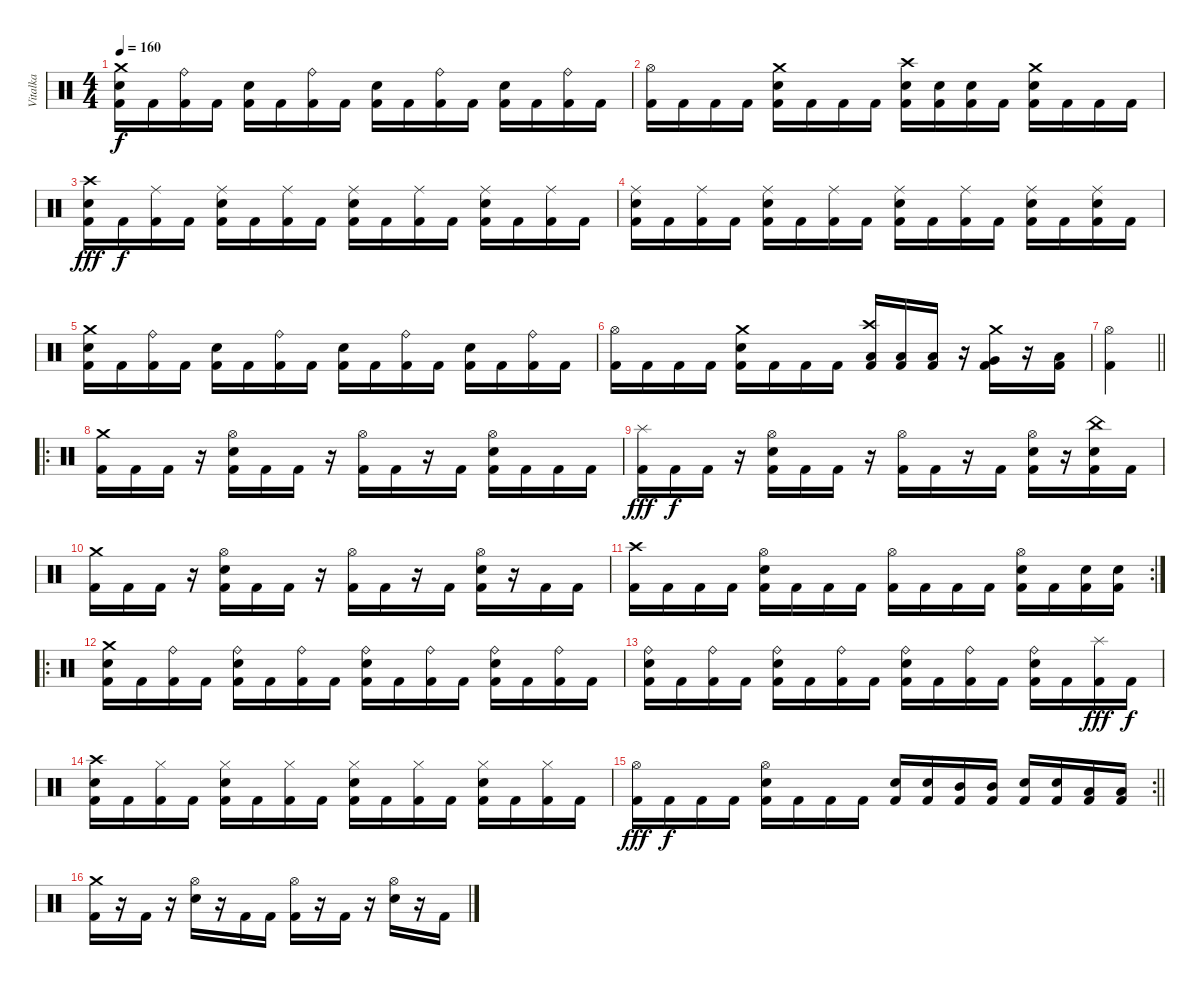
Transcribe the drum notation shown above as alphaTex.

\track ("Vitalka" "Vitalka") {instrument percussion}
\staff {score}
\articulation defaults
\ts (4 4)
\tempo 160
\clef neutral
\ks c
("Crash medium (hit)" "Snare (hit) 2" "Kick (hit) 2").16{dy f} "Kick (hit) 2".16 ("Ride (bell)" "Kick (hit) 2").16 "Kick (hit) 2".16 ("Snare (hit) 2" "Kick (hit) 2").16 "Kick (hit) 2".16 ("Ride (bell)" "Kick (hit) 2").16 "Kick (hit) 2".16 ("Snare (hit) 2" "Kick (hit) 2").16 "Kick (hit) 2".16 ("Ride (bell)" "Kick (hit) 2").16 "Kick (hit) 2".16 ("Snare (hit) 2" "Kick (hit) 2").16 "Kick (hit) 2".16 ("Ride (bell)" "Kick (hit) 2").16 "Kick (hit) 2".16 |
("Hi-Hat (open)" "Kick (hit) 2").16 "Kick (hit) 2".16 "Kick (hit) 2".16 "Kick (hit) 2".16 ("Crash medium (hit)" "Snare (hit) 2" "Kick (hit) 2").16 "Kick (hit) 2".16 "Kick (hit) 2".16 "Kick (hit) 2".16 ("Crash high (hit)" "Snare (hit) 2" "Kick (hit) 2").16 ("Snare (hit) 2" "Kick (hit) 2").16 ("Snare (hit) 2" "Kick (hit) 2").16 "Kick (hit) 2".16 ("Crash medium (hit)" "Snare (hit) 2" "Kick (hit) 2").16 "Kick (hit) 2".16 "Kick (hit) 2".16 "Kick (hit) 2".16 |
("Crash high (hit)" "Snare (hit) 2" "Kick (hit) 2").16{dy fff} "Kick (hit) 2".16{dy f} ("Ride (middle)" "Kick (hit) 2").16 "Kick (hit) 2".16 ("Ride (middle)" "Snare (hit) 2" "Kick (hit) 2").16 "Kick (hit) 2".16 ("Ride (middle)" "Kick (hit) 2").16 "Kick (hit) 2".16 ("Ride (middle)" "Snare (hit) 2" "Kick (hit) 2").16 "Kick (hit) 2".16 ("Ride (middle)" "Kick (hit) 2").16 "Kick (hit) 2".16 ("Ride (middle)" "Snare (hit) 2" "Kick (hit) 2").16 "Kick (hit) 2".16 ("Ride (middle)" "Kick (hit) 2").16 "Kick (hit) 2".16 |
("Ride (middle)" "Snare (hit) 2" "Kick (hit) 2").16 "Kick (hit) 2".16 ("Ride (middle)" "Kick (hit) 2").16 "Kick (hit) 2".16 ("Ride (middle)" "Snare (hit) 2" "Kick (hit) 2").16 "Kick (hit) 2".16 ("Ride (middle)" "Kick (hit) 2").16 "Kick (hit) 2".16 ("Ride (middle)" "Snare (hit) 2" "Kick (hit) 2").16 "Kick (hit) 2".16 ("Ride (middle)" "Kick (hit) 2").16 "Kick (hit) 2".16 ("Ride (middle)" "Snare (hit) 2" "Kick (hit) 2").16 "Kick (hit) 2".16 ("Ride (middle)" "Snare (hit) 2" "Kick (hit) 2").16 "Kick (hit) 2".16 |
("Crash medium (hit)" "Snare (hit) 2" "Kick (hit) 2").16 "Kick (hit) 2".16 ("Ride (bell)" "Kick (hit) 2").16 "Kick (hit) 2".16 ("Snare (hit) 2" "Kick (hit) 2").16 "Kick (hit) 2".16 ("Ride (bell)" "Kick (hit) 2").16 "Kick (hit) 2".16 ("Snare (hit) 2" "Kick (hit) 2").16 "Kick (hit) 2".16 ("Ride (bell)" "Kick (hit) 2").16 "Kick (hit) 2".16 ("Snare (hit) 2" "Kick (hit) 2").16 "Kick (hit) 2".16 ("Ride (bell)" "Kick (hit) 2").16 "Kick (hit) 2".16 |
("Hi-Hat (open)" "Kick (hit) 2").16 "Kick (hit) 2".16 "Kick (hit) 2".16 "Kick (hit) 2".16 ("Crash medium (hit)" "Snare (hit) 2" "Kick (hit) 2").16 "Kick (hit) 2".16 "Kick (hit) 2".16 "Kick (hit) 2".16 ("Crash high (hit)" "Low Tom (hit)" "Kick (hit) 2").16 ("Low Tom (hit)" "Kick (hit) 2").16 ("Low Tom (hit)" "Kick (hit) 2").16 r.16 ("Crash medium (hit)" "Very Low Tom (hit)" "Kick (hit) 2").16 r.16 ("Low Tom (hit)" "Kick (hit) 2").16 |
\barLineRight lightlight
("Hi-Hat (open)" "Kick (hit) 2").4 |
\ro
("Crash medium (hit)" "Kick (hit) 2").16 "Kick (hit) 2".16 "Kick (hit) 2".16 r.16 ("Hi-Hat (open)" "Snare (hit) 2" "Kick (hit) 2").16 "Kick (hit) 2".16 "Kick (hit) 2".16 r.16 ("Hi-Hat (open)" "Kick (hit) 2").16 "Kick (hit) 2".16 r.16 "Kick (hit) 2".16 ("Hi-Hat (open)" "Snare (hit) 2" "Kick (hit) 2").16 "Kick (hit) 2".16 "Kick (hit) 2".16 "Kick (hit) 2".16 |
("Splash (hit)" "Kick (hit) 2").16{dy fff} "Kick (hit) 2".16{dy f} "Kick (hit) 2".16 r.16 ("Hi-Hat (open)" "Snare (hit) 2" "Kick (hit) 2").16 "Kick (hit) 2".16 "Kick (hit) 2".16 r.16 ("Hi-Hat (open)" "Kick (hit) 2").16 "Kick (hit) 2".16 r.16 "Kick (hit) 2".16 ("Hi-Hat (open)" "Snare (hit) 2" "Kick (hit) 2").16 r.16 ("China (hit)" "Snare (hit) 2" "Kick (hit) 2").16 "Kick (hit) 2".16 |
("Crash medium (hit)" "Kick (hit) 2").16 "Kick (hit) 2".16 "Kick (hit) 2".16 r.16 ("Hi-Hat (open)" "Snare (hit) 2" "Kick (hit) 2").16 "Kick (hit) 2".16 "Kick (hit) 2".16 r.16 ("Hi-Hat (open)" "Kick (hit) 2").16 "Kick (hit) 2".16 r.16 "Kick (hit) 2".16 ("Hi-Hat (open)" "Snare (hit) 2" "Kick (hit) 2").16 r.16 "Kick (hit) 2".16 "Kick (hit) 2".16 |
\rc 2
("Crash high (hit)" "Kick (hit) 2").16 "Kick (hit) 2".16 "Kick (hit) 2".16 "Kick (hit) 2".16 ("Hi-Hat (open)" "Snare (hit) 2" "Kick (hit) 2").16 "Kick (hit) 2".16 "Kick (hit) 2".16 "Kick (hit) 2".16 ("Hi-Hat (open)" "Kick (hit) 2").16 "Kick (hit) 2".16 "Kick (hit) 2".16 "Kick (hit) 2".16 ("Hi-Hat (open)" "Snare (hit) 2" "Kick (hit) 2").16 "Kick (hit) 2".16 ("Snare (hit) 2" "Kick (hit) 2").16 ("Snare (hit) 2" "Kick (hit) 2").16 |
\ro
("Crash medium (hit)" "Snare (hit) 2" "Kick (hit) 2").16 "Kick (hit) 2".16 ("Ride (bell)" "Kick (hit) 2").16 "Kick (hit) 2".16 ("Ride (bell)" "Snare (hit) 2" "Kick (hit) 2").16 "Kick (hit) 2".16 ("Ride (bell)" "Kick (hit) 2").16 "Kick (hit) 2".16 ("Ride (bell)" "Snare (hit) 2" "Kick (hit) 2").16 "Kick (hit) 2".16 ("Ride (bell)" "Kick (hit) 2").16 "Kick (hit) 2".16 ("Ride (bell)" "Snare (hit) 2" "Kick (hit) 2").16 "Kick (hit) 2".16 ("Ride (bell)" "Kick (hit) 2").16 "Kick (hit) 2".16 |
("Ride (bell)" "Snare (hit) 2" "Kick (hit) 2").16 "Kick (hit) 2".16 ("Ride (bell)" "Kick (hit) 2").16 "Kick (hit) 2".16 ("Ride (bell)" "Snare (hit) 2" "Kick (hit) 2").16 "Kick (hit) 2".16 ("Ride (bell)" "Kick (hit) 2").16 "Kick (hit) 2".16 ("Ride (bell)" "Snare (hit) 2" "Kick (hit) 2").16 "Kick (hit) 2".16 ("Ride (bell)" "Kick (hit) 2").16 "Kick (hit) 2".16 ("Ride (bell)" "Snare (hit) 2" "Kick (hit) 2").16 "Kick (hit) 2".16 ("Splash (hit)" "Kick (hit) 2").16{dy fff} "Kick (hit) 2".16{dy f} |
("Crash high (hit)" "Snare (hit) 2" "Kick (hit) 2").16 "Kick (hit) 2".16 ("Hi-Hat (closed)" "Kick (hit) 2").16 "Kick (hit) 2".16 ("Hi-Hat (closed)" "Snare (hit) 2" "Kick (hit) 2").16 "Kick (hit) 2".16 ("Hi-Hat (closed)" "Kick (hit) 2").16 "Kick (hit) 2".16 ("Hi-Hat (closed)" "Snare (hit) 2" "Kick (hit) 2").16 "Kick (hit) 2".16 ("Hi-Hat (closed)" "Kick (hit) 2").16 "Kick (hit) 2".16 ("Hi-Hat (closed)" "Snare (hit) 2" "Kick (hit) 2").16 "Kick (hit) 2".16 ("Hi-Hat (closed)" "Kick (hit) 2").16 "Kick (hit) 2".16 |
\rc 2
\barLineRight lightlight
("Hi-Hat (open)" "Kick (hit) 2").16{dy fff} "Kick (hit) 2".16{dy f} "Kick (hit) 2".16 "Kick (hit) 2".16 ("Hi-Hat (open)" "Snare (hit) 2" "Kick (hit) 2").16 "Kick (hit) 2".16 "Kick (hit) 2".16 "Kick (hit) 2".16 ("Snare (hit) 2" "Kick (hit) 2").16 ("Snare (hit) 2" "Kick (hit) 2").16 ("Mid Tom (hit)" "Kick (hit) 2").16 ("Mid Tom (hit)" "Kick (hit) 2").16 ("Snare (hit) 2" "Kick (hit) 2").16 ("Snare (hit) 2" "Kick (hit) 2").16 ("Low Tom (hit)" "Kick (hit) 2").16 ("Low Tom (hit)" "Kick (hit) 2").16 |
("Crash medium (hit)" "Kick (hit) 2").16 r.16 "Kick (hit) 2".16 r.16 ("Hi-Hat (open)" "Snare (hit) 2").16 r.16 "Kick (hit) 2".16 "Kick (hit) 2".16 ("Hi-Hat (open)" "Kick (hit) 2").16 r.16 "Kick (hit) 2".16 r.16 ("Hi-Hat (open)" "Snare (hit) 2").16 r.16 "Kick (hit) 2".16
